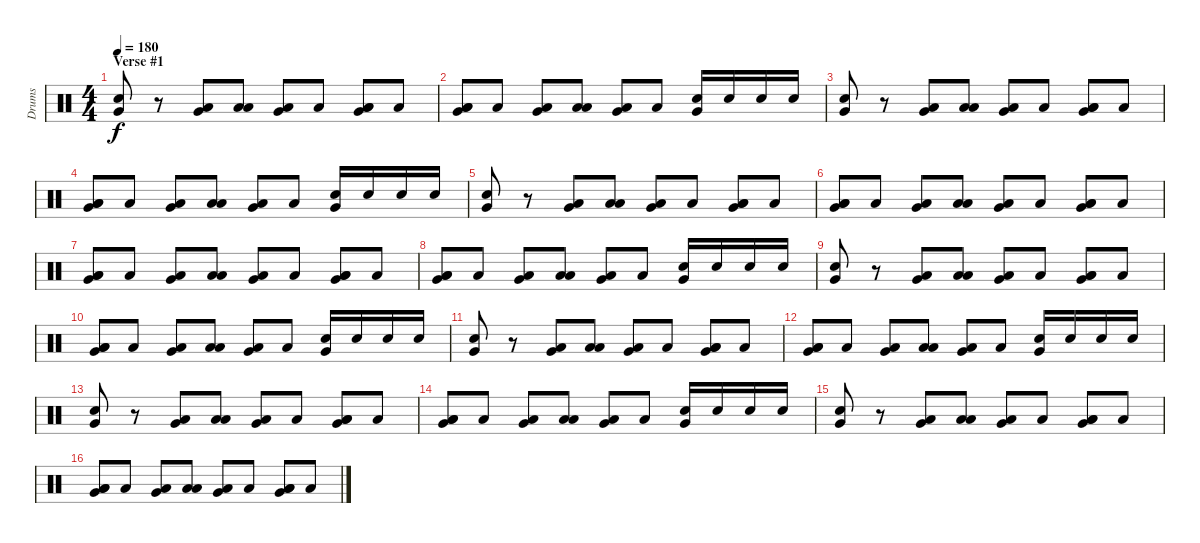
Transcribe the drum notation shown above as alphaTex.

\track ("Drums" "Drums") {instrument percussion}
\staff {score}
\articulation defaults
\ts (4 4)
\section ("" "Verse #1")
\tempo 180
\clef neutral
\ks c
("Very Low Tom (hit)" "Electric Snare (hit)").8{dy f} r.8 ("Low Floor Tom (hit)" "Very Low Tom (hit)").8 ("Low Floor Tom (hit)" "Low Tom (hit)").8 ("Low Floor Tom (hit)" "Very Low Tom (hit)").8 "Low Floor Tom (hit)".8 ("Low Floor Tom (hit)" "Low Tom (hit)" "Very Low Tom (hit)").8 "Low Floor Tom (hit)".8 |
("Low Floor Tom (hit)" "Low Tom (hit)" "Very Low Tom (hit)").8 "Low Floor Tom (hit)".8 ("Low Floor Tom (hit)" "Very Low Tom (hit)").8 ("Low Floor Tom (hit)" "Low Tom (hit)").8 ("Low Floor Tom (hit)" "Very Low Tom (hit)").8 "Low Floor Tom (hit)".8 ("Very Low Tom (hit)" "Electric Snare (hit)").16 "Electric Snare (hit)".16 "Electric Snare (hit)".16 "Electric Snare (hit)".16 |
("Very Low Tom (hit)" "Electric Snare (hit)").8 r.8 ("Low Floor Tom (hit)" "Very Low Tom (hit)").8 ("Low Floor Tom (hit)" "Low Tom (hit)").8 ("Low Floor Tom (hit)" "Very Low Tom (hit)").8 "Low Floor Tom (hit)".8 ("Low Floor Tom (hit)" "Low Tom (hit)" "Very Low Tom (hit)").8 "Low Floor Tom (hit)".8 |
("Low Floor Tom (hit)" "Low Tom (hit)" "Very Low Tom (hit)").8 "Low Floor Tom (hit)".8 ("Low Floor Tom (hit)" "Very Low Tom (hit)").8 ("Low Floor Tom (hit)" "Low Tom (hit)").8 ("Low Floor Tom (hit)" "Very Low Tom (hit)").8 "Low Floor Tom (hit)".8 ("Very Low Tom (hit)" "Electric Snare (hit)").16 "Electric Snare (hit)".16 "Electric Snare (hit)".16 "Electric Snare (hit)".16 |
("Very Low Tom (hit)" "Electric Snare (hit)").8 r.8 ("Low Floor Tom (hit)" "Very Low Tom (hit)").8 ("Low Floor Tom (hit)" "Low Tom (hit)").8 ("Low Floor Tom (hit)" "Very Low Tom (hit)").8 "Low Floor Tom (hit)".8 ("Low Floor Tom (hit)" "Low Tom (hit)" "Very Low Tom (hit)").8 "Low Floor Tom (hit)".8 |
("Low Floor Tom (hit)" "Low Tom (hit)" "Very Low Tom (hit)").8 "Low Floor Tom (hit)".8 ("Low Floor Tom (hit)" "Very Low Tom (hit)").8 ("Low Floor Tom (hit)" "Low Tom (hit)").8 ("Low Floor Tom (hit)" "Very Low Tom (hit)").8 "Low Floor Tom (hit)".8 ("Low Floor Tom (hit)" "Low Tom (hit)" "Very Low Tom (hit)").8 "Low Floor Tom (hit)".8 |
("Low Floor Tom (hit)" "Low Tom (hit)" "Very Low Tom (hit)").8 "Low Floor Tom (hit)".8 ("Low Floor Tom (hit)" "Very Low Tom (hit)").8 ("Low Floor Tom (hit)" "Low Tom (hit)").8 ("Low Floor Tom (hit)" "Very Low Tom (hit)").8 "Low Floor Tom (hit)".8 ("Low Floor Tom (hit)" "Low Tom (hit)" "Very Low Tom (hit)").8 "Low Floor Tom (hit)".8 |
("Low Floor Tom (hit)" "Low Tom (hit)" "Very Low Tom (hit)").8 "Low Floor Tom (hit)".8 ("Low Floor Tom (hit)" "Very Low Tom (hit)").8 ("Low Floor Tom (hit)" "Low Tom (hit)").8 ("Low Floor Tom (hit)" "Very Low Tom (hit)").8 "Low Floor Tom (hit)".8 ("Very Low Tom (hit)" "Electric Snare (hit)").16 "Electric Snare (hit)".16 "Electric Snare (hit)".16 "Electric Snare (hit)".16 |
("Very Low Tom (hit)" "Electric Snare (hit)").8 r.8 ("Low Floor Tom (hit)" "Very Low Tom (hit)").8 ("Low Floor Tom (hit)" "Low Tom (hit)").8 ("Low Floor Tom (hit)" "Very Low Tom (hit)").8 "Low Floor Tom (hit)".8 ("Low Floor Tom (hit)" "Low Tom (hit)" "Very Low Tom (hit)").8 "Low Floor Tom (hit)".8 |
("Low Floor Tom (hit)" "Low Tom (hit)" "Very Low Tom (hit)").8 "Low Floor Tom (hit)".8 ("Low Floor Tom (hit)" "Very Low Tom (hit)").8 ("Low Floor Tom (hit)" "Low Tom (hit)").8 ("Low Floor Tom (hit)" "Very Low Tom (hit)").8 "Low Floor Tom (hit)".8 ("Very Low Tom (hit)" "Electric Snare (hit)").16 "Electric Snare (hit)".16 "Electric Snare (hit)".16 "Electric Snare (hit)".16 |
("Very Low Tom (hit)" "Electric Snare (hit)").8 r.8 ("Low Floor Tom (hit)" "Very Low Tom (hit)").8 ("Low Floor Tom (hit)" "Low Tom (hit)").8 ("Low Floor Tom (hit)" "Very Low Tom (hit)").8 "Low Floor Tom (hit)".8 ("Low Floor Tom (hit)" "Low Tom (hit)" "Very Low Tom (hit)").8 "Low Floor Tom (hit)".8 |
("Low Floor Tom (hit)" "Low Tom (hit)" "Very Low Tom (hit)").8 "Low Floor Tom (hit)".8 ("Low Floor Tom (hit)" "Very Low Tom (hit)").8 ("Low Floor Tom (hit)" "Low Tom (hit)").8 ("Low Floor Tom (hit)" "Very Low Tom (hit)").8 "Low Floor Tom (hit)".8 ("Very Low Tom (hit)" "Electric Snare (hit)").16 "Electric Snare (hit)".16 "Electric Snare (hit)".16 "Electric Snare (hit)".16 |
("Very Low Tom (hit)" "Electric Snare (hit)").8 r.8 ("Low Floor Tom (hit)" "Very Low Tom (hit)").8 ("Low Floor Tom (hit)" "Low Tom (hit)").8 ("Low Floor Tom (hit)" "Very Low Tom (hit)").8 "Low Floor Tom (hit)".8 ("Low Floor Tom (hit)" "Low Tom (hit)" "Very Low Tom (hit)").8 "Low Floor Tom (hit)".8 |
("Low Floor Tom (hit)" "Low Tom (hit)" "Very Low Tom (hit)").8 "Low Floor Tom (hit)".8 ("Low Floor Tom (hit)" "Very Low Tom (hit)").8 ("Low Floor Tom (hit)" "Low Tom (hit)").8 ("Low Floor Tom (hit)" "Very Low Tom (hit)").8 "Low Floor Tom (hit)".8 ("Very Low Tom (hit)" "Electric Snare (hit)").16 "Electric Snare (hit)".16 "Electric Snare (hit)".16 "Electric Snare (hit)".16 |
("Very Low Tom (hit)" "Electric Snare (hit)").8 r.8 ("Low Floor Tom (hit)" "Very Low Tom (hit)").8 ("Low Floor Tom (hit)" "Low Tom (hit)").8 ("Low Floor Tom (hit)" "Very Low Tom (hit)").8 "Low Floor Tom (hit)".8 ("Low Floor Tom (hit)" "Low Tom (hit)" "Very Low Tom (hit)").8 "Low Floor Tom (hit)".8 |
("Low Floor Tom (hit)" "Low Tom (hit)" "Very Low Tom (hit)").8 "Low Floor Tom (hit)".8 ("Low Floor Tom (hit)" "Very Low Tom (hit)").8 ("Low Floor Tom (hit)" "Low Tom (hit)").8 ("Low Floor Tom (hit)" "Very Low Tom (hit)").8 "Low Floor Tom (hit)".8 ("Low Floor Tom (hit)" "Low Tom (hit)" "Very Low Tom (hit)").8 "Low Floor Tom (hit)".8
